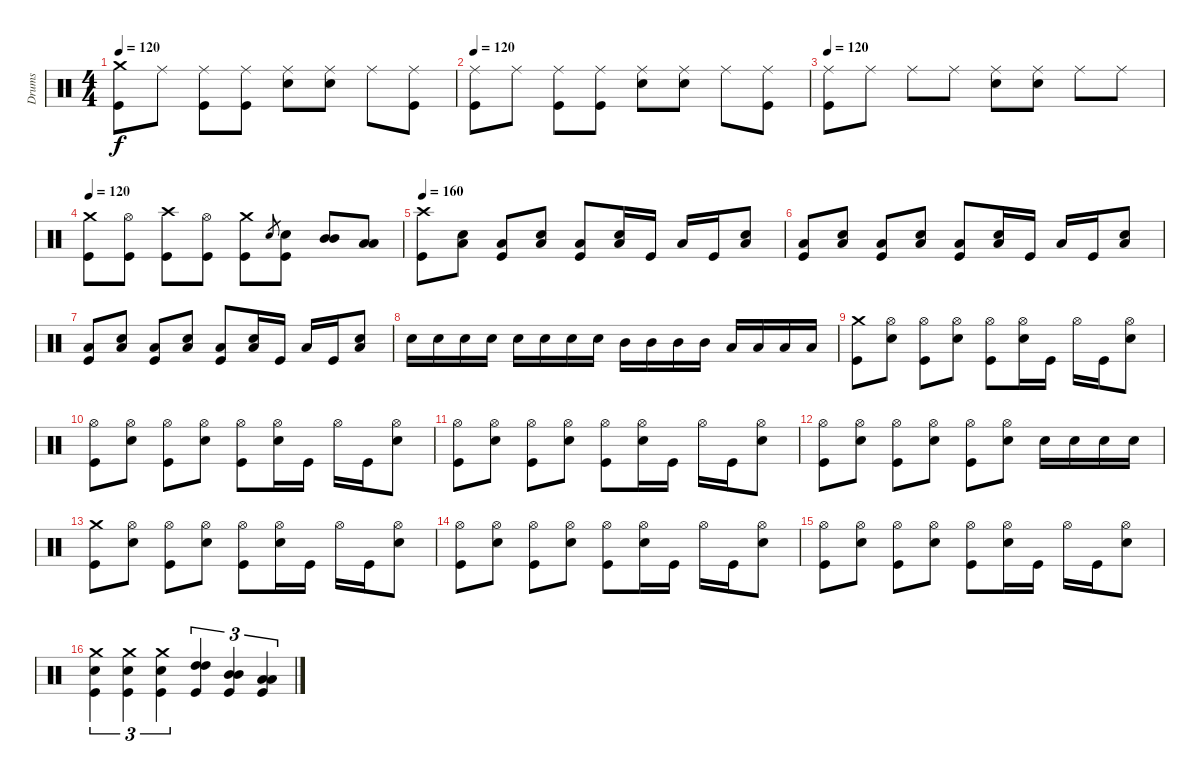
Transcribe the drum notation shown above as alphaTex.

\track ("Drums" "Drums") {instrument percussion}
\staff {score}
\articulation defaults
\ts (4 4)
\tempo 120
\clef neutral
\ks c
("Crash medium (hit)" "Kick (hit)").8{dy f} "Ride (middle)".8 ("Ride (middle)" "Kick (hit)").8 ("Ride (middle)" "Kick (hit)").8 ("Ride (middle)" "Snare (hit) 2").8 ("Ride (middle)" "Snare (hit) 2").8 "Ride (middle)".8 ("Ride (middle)" "Kick (hit)").8 |
\tempo 120
("Ride (middle)" "Kick (hit)").8 "Ride (middle)".8 ("Ride (middle)" "Kick (hit)").8 ("Ride (middle)" "Kick (hit)").8 ("Ride (middle)" "Snare (hit) 2").8 ("Ride (middle)" "Snare (hit) 2").8 "Ride (middle)".8 ("Ride (middle)" "Kick (hit)").8 |
\tempo 120
("Ride (middle)" "Kick (hit)").8 "Ride (middle)".8 "Ride (middle)".8 "Ride (middle)".8 ("Ride (middle)" "Snare (hit) 2").8 ("Ride (middle)" "Snare (hit) 2").8 "Ride (middle)".8 "Ride (middle)".8 |
\tempo 120
("Crash medium (hit)" "Kick (hit)").8 ("Hi-Hat (open)" "Kick (hit)").8 ("Crash high (hit)" "Kick (hit)").8 ("Hi-Hat (open)" "Kick (hit)").8 ("Crash medium (hit)" "Kick (hit)").8 "Snare (hit) 2".8{gr} ("Snare (hit) 2" "Kick (hit)").8 ("Mid Tom (hit)" "Mid Tom (hit)").8 ("Low Tom (hit)" "Low Tom (hit)").8 |
\tempo 160
("Crash high (hit)" "Kick (hit)").8 ("Low Floor Tom (hit)" "Snare (hit) 2").8 ("Low Floor Tom (hit)" "Kick (hit)").8 ("Low Floor Tom (hit)" "Snare (hit) 2").8 ("Low Floor Tom (hit)" "Kick (hit)").8 ("Low Floor Tom (hit)" "Snare (hit) 2").16 "Kick (hit)".16 "Low Floor Tom (hit)".16 "Kick (hit)".16 ("Low Floor Tom (hit)" "Snare (hit) 2").8 |
("Low Floor Tom (hit)" "Kick (hit)").8 ("Low Floor Tom (hit)" "Snare (hit) 2").8 ("Low Floor Tom (hit)" "Kick (hit)").8 ("Low Floor Tom (hit)" "Snare (hit) 2").8 ("Low Floor Tom (hit)" "Kick (hit)").8 ("Low Floor Tom (hit)" "Snare (hit) 2").16 "Kick (hit)".16 "Low Floor Tom (hit)".16 "Kick (hit)".16 ("Low Floor Tom (hit)" "Snare (hit) 2").8 |
("Low Floor Tom (hit)" "Kick (hit)").8 ("Low Floor Tom (hit)" "Snare (hit) 2").8 ("Low Floor Tom (hit)" "Kick (hit)").8 ("Low Floor Tom (hit)" "Snare (hit) 2").8 ("Low Floor Tom (hit)" "Kick (hit)").8 ("Low Floor Tom (hit)" "Snare (hit) 2").16 "Kick (hit)".16 "Low Floor Tom (hit)".16 "Kick (hit)".16 ("Low Floor Tom (hit)" "Snare (hit) 2").8 |
"Snare (hit) 2".16 "Snare (hit) 2".16 "Snare (hit) 2".16 "Snare (hit) 2".16 "Snare (hit) 2".16 "Snare (hit) 2".16 "Snare (hit) 2".16 "Snare (hit) 2".16 "Mid Tom (hit)".16 "Mid Tom (hit)".16 "Mid Tom (hit)".16 "Mid Tom (hit)".16 "Low Tom (hit)".16 "Low Tom (hit)".16 "Low Tom (hit)".16 "Low Tom (hit)".16 |
("Crash medium (hit)" "Kick (hit)").8 ("Hi-Hat (open)" "Snare (hit) 2").8 ("Hi-Hat (open)" "Kick (hit)").8 ("Hi-Hat (open)" "Snare (hit) 2").8 ("Hi-Hat (open)" "Kick (hit)").8 ("Hi-Hat (open)" "Snare (hit) 2").16 "Kick (hit)".16 "Hi-Hat (open)".16 "Kick (hit)".16 ("Hi-Hat (open)" "Snare (hit) 2").8 |
("Hi-Hat (open)" "Kick (hit)").8 ("Hi-Hat (open)" "Snare (hit) 2").8 ("Hi-Hat (open)" "Kick (hit)").8 ("Hi-Hat (open)" "Snare (hit) 2").8 ("Hi-Hat (open)" "Kick (hit)").8 ("Hi-Hat (open)" "Snare (hit) 2").16 "Kick (hit)".16 "Hi-Hat (open)".16 "Kick (hit)".16 ("Hi-Hat (open)" "Snare (hit) 2").8 |
("Hi-Hat (open)" "Kick (hit)").8 ("Hi-Hat (open)" "Snare (hit) 2").8 ("Hi-Hat (open)" "Kick (hit)").8 ("Hi-Hat (open)" "Snare (hit) 2").8 ("Hi-Hat (open)" "Kick (hit)").8 ("Hi-Hat (open)" "Snare (hit) 2").16 "Kick (hit)".16 "Hi-Hat (open)".16 "Kick (hit)".16 ("Hi-Hat (open)" "Snare (hit) 2").8 |
("Hi-Hat (open)" "Kick (hit)").8 ("Hi-Hat (open)" "Snare (hit) 2").8 ("Hi-Hat (open)" "Kick (hit)").8 ("Hi-Hat (open)" "Snare (hit) 2").8 ("Hi-Hat (open)" "Kick (hit)").8 ("Hi-Hat (open)" "Snare (hit) 2").8 "Snare (hit) 2".16 "Snare (hit) 2".16 "Snare (hit) 2".16 "Snare (hit) 2".16 |
("Crash medium (hit)" "Kick (hit)").8 ("Hi-Hat (open)" "Snare (hit) 2").8 ("Hi-Hat (open)" "Kick (hit)").8 ("Hi-Hat (open)" "Snare (hit) 2").8 ("Hi-Hat (open)" "Kick (hit)").8 ("Hi-Hat (open)" "Snare (hit) 2").16 "Kick (hit)".16 "Hi-Hat (open)".16 "Kick (hit)".16 ("Hi-Hat (open)" "Snare (hit) 2").8 |
("Hi-Hat (open)" "Kick (hit)").8 ("Hi-Hat (open)" "Snare (hit) 2").8 ("Hi-Hat (open)" "Kick (hit)").8 ("Hi-Hat (open)" "Snare (hit) 2").8 ("Hi-Hat (open)" "Kick (hit)").8 ("Hi-Hat (open)" "Snare (hit) 2").16 "Kick (hit)".16 "Hi-Hat (open)".16 "Kick (hit)".16 ("Hi-Hat (open)" "Snare (hit) 2").8 |
("Hi-Hat (open)" "Kick (hit)").8 ("Hi-Hat (open)" "Snare (hit) 2").8 ("Hi-Hat (open)" "Kick (hit)").8 ("Hi-Hat (open)" "Snare (hit) 2").8 ("Hi-Hat (open)" "Kick (hit)").8 ("Hi-Hat (open)" "Snare (hit) 2").16 "Kick (hit)".16 "Hi-Hat (open)".16 "Kick (hit)".16 ("Hi-Hat (open)" "Snare (hit) 2").8 |
("Crash medium (hit)" "Snare (hit) 2" "Kick (hit)").4{tu (3 2)} ("Crash medium (hit)" "Snare (hit) 2" "Kick (hit)").4{tu (3 2)} ("Crash medium (hit)" "Snare (hit) 2" "Kick (hit)").4{tu (3 2)} ("High Tom (hit)" "High Tom (hit)" "Kick (hit)").4{tu (3 2)} ("Mid Tom (hit)" "Mid Tom (hit)" "Kick (hit)").4{tu (3 2)} ("Low Tom (hit)" "Low Tom (hit)" "Kick (hit)").4{tu (3 2)}
